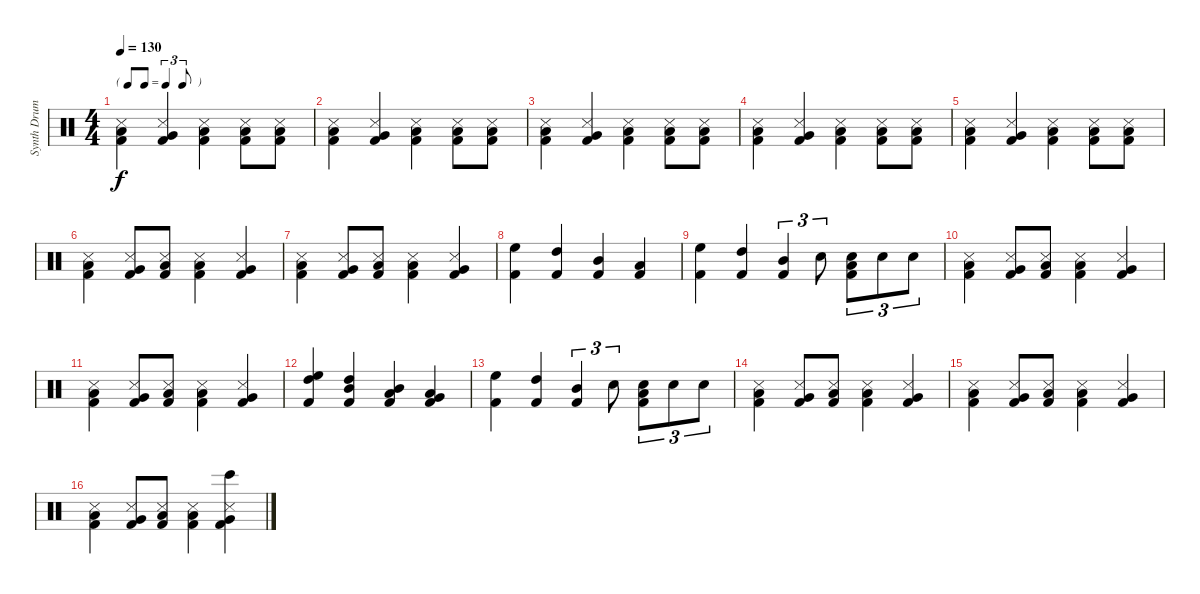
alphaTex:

\track ("Synth Drums (Alan Wilder)" "Synth Drum") {instrument percussion}
\staff {score}
\articulation defaults
\ts (4 4)
\tf triplet8th
\tempo 130
\clef neutral
\ks c
("Low Floor Tom (hit)" "Kick (hit) 2" "Snare (side stick) 3").4{dy f} ("Very Low Tom (hit)" "Kick (hit) 2" "Snare (side stick) 3").4 ("Low Floor Tom (hit)" "Kick (hit) 2" "Snare (side stick) 3").4 ("Low Floor Tom (hit)" "Kick (hit) 2" "Snare (side stick) 3").8 ("Low Floor Tom (hit)" "Kick (hit) 2" "Snare (side stick) 3").8 |
("Low Floor Tom (hit)" "Kick (hit) 2" "Snare (side stick) 3").4 ("Very Low Tom (hit)" "Kick (hit) 2" "Snare (side stick) 3").4 ("Low Floor Tom (hit)" "Kick (hit) 2" "Snare (side stick) 3").4 ("Low Floor Tom (hit)" "Kick (hit) 2" "Snare (side stick) 3").8 ("Low Floor Tom (hit)" "Kick (hit) 2" "Snare (side stick) 3").8 |
("Low Floor Tom (hit)" "Kick (hit) 2" "Snare (side stick) 3").4 ("Very Low Tom (hit)" "Kick (hit) 2" "Snare (side stick) 3").4 ("Low Floor Tom (hit)" "Kick (hit) 2" "Snare (side stick) 3").4 ("Low Floor Tom (hit)" "Kick (hit) 2" "Snare (side stick) 3").8 ("Low Floor Tom (hit)" "Kick (hit) 2" "Snare (side stick) 3").8 |
("Low Floor Tom (hit)" "Kick (hit) 2" "Snare (side stick) 3").4 ("Very Low Tom (hit)" "Kick (hit) 2" "Snare (side stick) 3").4 ("Low Floor Tom (hit)" "Kick (hit) 2" "Snare (side stick) 3").4 ("Low Floor Tom (hit)" "Kick (hit) 2" "Snare (side stick) 3").8 ("Low Floor Tom (hit)" "Kick (hit) 2" "Snare (side stick) 3").8 |
("Low Floor Tom (hit)" "Kick (hit) 2" "Snare (side stick) 3").4 ("Very Low Tom (hit)" "Kick (hit) 2" "Snare (side stick) 3").4 ("Low Floor Tom (hit)" "Kick (hit) 2" "Snare (side stick) 3").4 ("Low Floor Tom (hit)" "Kick (hit) 2" "Snare (side stick) 3").8 ("Low Floor Tom (hit)" "Kick (hit) 2" "Snare (side stick) 3").8 |
("Low Floor Tom (hit)" "Kick (hit) 2" "Snare (side stick) 3").4 ("Very Low Tom (hit)" "Kick (hit) 2" "Snare (side stick) 3").8 ("Low Floor Tom (hit)" "Kick (hit) 2" "Snare (side stick) 3").8 ("Low Floor Tom (hit)" "Kick (hit) 2" "Snare (side stick) 3").4 ("Very Low Tom (hit)" "Kick (hit) 2" "Snare (side stick) 3").4 |
("Low Floor Tom (hit)" "Kick (hit) 2" "Snare (side stick) 3").4 ("Very Low Tom (hit)" "Kick (hit) 2" "Snare (side stick) 3").8 ("Low Floor Tom (hit)" "Kick (hit) 2" "Snare (side stick) 3").8 ("Low Floor Tom (hit)" "Kick (hit) 2" "Snare (side stick) 3").4 ("Very Low Tom (hit)" "Kick (hit) 2" "Snare (side stick) 3").4 |
("High Floor Tom (hit)" "Kick (hit) 2").4 ("High Tom (hit)" "Kick (hit) 2").4 ("Mid Tom (hit)" "Kick (hit) 2").4 ("Low Tom (hit)" "Kick (hit) 2").4 |
("High Floor Tom (hit)" "Kick (hit) 2").4 ("High Tom (hit)" "Kick (hit) 2").4 ("Mid Tom (hit)" "Kick (hit) 2").4{tu (3 2)} "Snare (hit) 2".8{tu (3 2)} ("Snare (hit) 2" "Low Floor Tom (hit)" "Kick (hit) 2").8{tu (3 2)} "Snare (hit) 2".8{tu (3 2)} "Snare (hit) 2".8{tu (3 2)} |
("Low Floor Tom (hit)" "Kick (hit) 2" "Snare (side stick) 3").4 ("Very Low Tom (hit)" "Kick (hit) 2" "Snare (side stick) 3").8 ("Low Floor Tom (hit)" "Kick (hit) 2" "Snare (side stick) 3").8 ("Low Floor Tom (hit)" "Kick (hit) 2" "Snare (side stick) 3").4 ("Very Low Tom (hit)" "Kick (hit) 2" "Snare (side stick) 3").4 |
("Low Floor Tom (hit)" "Kick (hit) 2" "Snare (side stick) 3").4 ("Very Low Tom (hit)" "Kick (hit) 2" "Snare (side stick) 3").8 ("Low Floor Tom (hit)" "Kick (hit) 2" "Snare (side stick) 3").8 ("Low Floor Tom (hit)" "Kick (hit) 2" "Snare (side stick) 3").4 ("Very Low Tom (hit)" "Kick (hit) 2" "Snare (side stick) 3").4 |
("High Floor Tom (hit)" "High Tom (hit)" "Kick (hit) 2").4 ("High Tom (hit)" "Mid Tom (hit)" "Kick (hit) 2").4 ("Mid Tom (hit)" "Low Tom (hit)" "Kick (hit) 2").4 ("Low Tom (hit)" "Very Low Tom (hit)" "Kick (hit) 2").4 |
("High Floor Tom (hit)" "Kick (hit) 2").4 ("High Tom (hit)" "Kick (hit) 2").4 ("Mid Tom (hit)" "Kick (hit) 2").4{tu (3 2)} "Snare (hit) 2".8{tu (3 2)} ("Snare (hit) 2" "Low Floor Tom (hit)" "Kick (hit) 2").8{tu (3 2)} "Snare (hit) 2".8{tu (3 2)} "Snare (hit) 2".8{tu (3 2)} |
("Low Floor Tom (hit)" "Kick (hit) 2" "Snare (side stick) 3").4 ("Very Low Tom (hit)" "Kick (hit) 2" "Snare (side stick) 3").8 ("Low Floor Tom (hit)" "Kick (hit) 2" "Snare (side stick) 3").8 ("Low Floor Tom (hit)" "Kick (hit) 2" "Snare (side stick) 3").4 ("Very Low Tom (hit)" "Kick (hit) 2" "Snare (side stick) 3").4 |
("Low Floor Tom (hit)" "Kick (hit) 2" "Snare (side stick) 3").4 ("Very Low Tom (hit)" "Kick (hit) 2" "Snare (side stick) 3").8 ("Low Floor Tom (hit)" "Kick (hit) 2" "Snare (side stick) 3").8 ("Low Floor Tom (hit)" "Kick (hit) 2" "Snare (side stick) 3").4 ("Very Low Tom (hit)" "Kick (hit) 2" "Snare (side stick) 3").4 |
("Low Floor Tom (hit)" "Kick (hit) 2" "Snare (side stick) 3").4 ("Very Low Tom (hit)" "Kick (hit) 2" "Snare (side stick) 3").8 ("Low Floor Tom (hit)" "Kick (hit) 2" "Snare (side stick) 3").8 ("Low Floor Tom (hit)" "Kick (hit) 2" "Snare (side stick) 3").4 ("Bongo High (hit)" "Very Low Tom (hit)" "Kick (hit) 2" "Snare (side stick) 3").4
